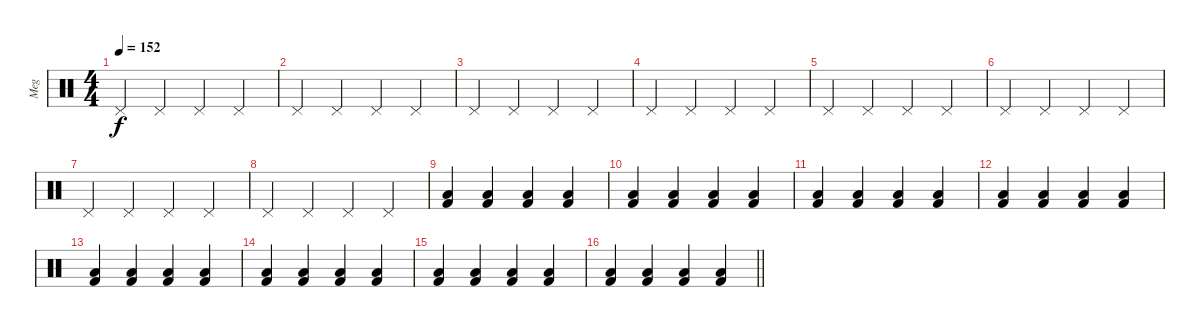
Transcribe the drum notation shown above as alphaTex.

\track ("Meg" "Meg") {instrument percussion}
\staff {score}
\articulation defaults
\ts (4 4)
\tempo 152
\clef neutral
\ks c "Pedal Hi-Hat (hit)".4{dy f} "Pedal Hi-Hat (hit)".4 "Pedal Hi-Hat (hit)".4 "Pedal Hi-Hat (hit)".4
|
"Pedal Hi-Hat (hit)".4 "Pedal Hi-Hat (hit)".4 "Pedal Hi-Hat (hit)".4 "Pedal Hi-Hat (hit)".4 |
"Pedal Hi-Hat (hit)".4 "Pedal Hi-Hat (hit)".4 "Pedal Hi-Hat (hit)".4 "Pedal Hi-Hat (hit)".4 |
"Pedal Hi-Hat (hit)".4 "Pedal Hi-Hat (hit)".4 "Pedal Hi-Hat (hit)".4 "Pedal Hi-Hat (hit)".4 |
"Pedal Hi-Hat (hit)".4 "Pedal Hi-Hat (hit)".4 "Pedal Hi-Hat (hit)".4 "Pedal Hi-Hat (hit)".4 |
"Pedal Hi-Hat (hit)".4 "Pedal Hi-Hat (hit)".4 "Pedal Hi-Hat (hit)".4 "Pedal Hi-Hat (hit)".4 |
"Pedal Hi-Hat (hit)".4 "Pedal Hi-Hat (hit)".4 "Pedal Hi-Hat (hit)".4 "Pedal Hi-Hat (hit)".4 |
"Pedal Hi-Hat (hit)".4 "Pedal Hi-Hat (hit)".4 "Pedal Hi-Hat (hit)".4 "Pedal Hi-Hat (hit)".4 |
("Low Floor Tom (hit)" "Kick (hit) 2").4 ("Low Floor Tom (hit)" "Kick (hit) 2").4 ("Low Floor Tom (hit)" "Kick (hit) 2").4 ("Low Floor Tom (hit)" "Kick (hit) 2").4 |
("Low Floor Tom (hit)" "Kick (hit) 2").4 ("Low Floor Tom (hit)" "Kick (hit) 2").4 ("Low Floor Tom (hit)" "Kick (hit) 2").4 ("Low Floor Tom (hit)" "Kick (hit) 2").4 |
("Low Floor Tom (hit)" "Kick (hit) 2").4 ("Low Floor Tom (hit)" "Kick (hit) 2").4 ("Low Floor Tom (hit)" "Kick (hit) 2").4 ("Low Floor Tom (hit)" "Kick (hit) 2").4 |
("Low Floor Tom (hit)" "Kick (hit) 2").4 ("Low Floor Tom (hit)" "Kick (hit) 2").4 ("Low Floor Tom (hit)" "Kick (hit) 2").4 ("Low Floor Tom (hit)" "Kick (hit) 2").4 |
("Low Floor Tom (hit)" "Kick (hit) 2").4 ("Low Floor Tom (hit)" "Kick (hit) 2").4 ("Low Floor Tom (hit)" "Kick (hit) 2").4 ("Low Floor Tom (hit)" "Kick (hit) 2").4 |
("Low Floor Tom (hit)" "Kick (hit) 2").4 ("Low Floor Tom (hit)" "Kick (hit) 2").4 ("Low Floor Tom (hit)" "Kick (hit) 2").4 ("Low Floor Tom (hit)" "Kick (hit) 2").4 |
("Low Floor Tom (hit)" "Kick (hit) 2").4 ("Low Floor Tom (hit)" "Kick (hit) 2").4 ("Low Floor Tom (hit)" "Kick (hit) 2").4 ("Low Floor Tom (hit)" "Kick (hit) 2").4 |
\barLineRight lightlight
("Low Floor Tom (hit)" "Kick (hit) 2").4 ("Low Floor Tom (hit)" "Kick (hit) 2").4 ("Low Floor Tom (hit)" "Kick (hit) 2").4 ("Low Floor Tom (hit)" "Kick (hit) 2").4
